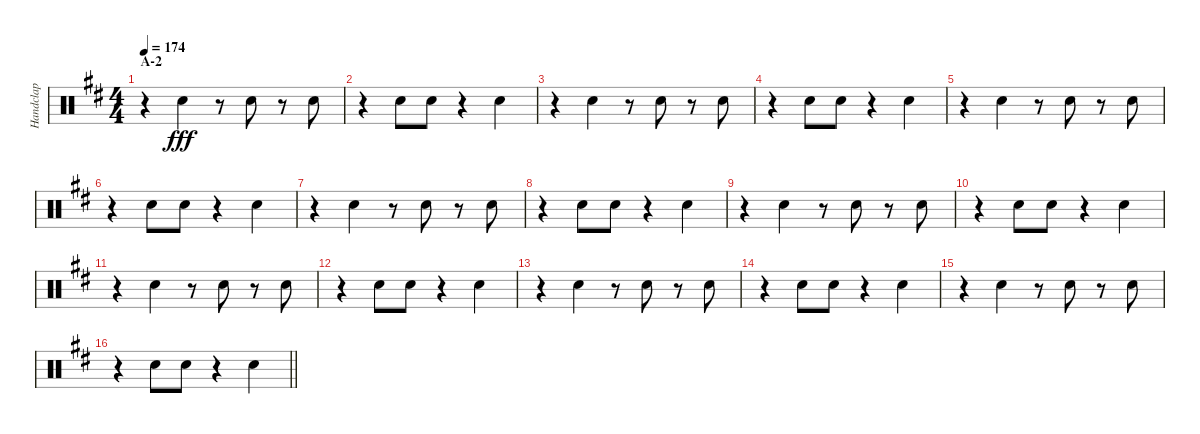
\track ("Handclap" "Handclap") {instrument percussion}
\staff {score}
\articulation defaults
\ts (4 4)
\section ("" "A-2")
\tempo 174
\clef neutral
\ks bminor
r.4{dy fff} "Hand Clap (hit)".4 r.8 "Hand Clap (hit)".8 r.8 "Hand Clap (hit)".8 |
r.4 "Hand Clap (hit)".8 "Hand Clap (hit)".8 r.4 "Hand Clap (hit)".4 |
r.4 "Hand Clap (hit)".4 r.8 "Hand Clap (hit)".8 r.8 "Hand Clap (hit)".8 |
r.4 "Hand Clap (hit)".8 "Hand Clap (hit)".8 r.4 "Hand Clap (hit)".4 |
r.4 "Hand Clap (hit)".4 r.8 "Hand Clap (hit)".8 r.8 "Hand Clap (hit)".8 |
r.4 "Hand Clap (hit)".8 "Hand Clap (hit)".8 r.4 "Hand Clap (hit)".4 |
r.4 "Hand Clap (hit)".4 r.8 "Hand Clap (hit)".8 r.8 "Hand Clap (hit)".8 |
r.4 "Hand Clap (hit)".8 "Hand Clap (hit)".8 r.4 "Hand Clap (hit)".4 |
r.4 "Hand Clap (hit)".4 r.8 "Hand Clap (hit)".8 r.8 "Hand Clap (hit)".8 |
r.4 "Hand Clap (hit)".8 "Hand Clap (hit)".8 r.4 "Hand Clap (hit)".4 |
r.4 "Hand Clap (hit)".4 r.8 "Hand Clap (hit)".8 r.8 "Hand Clap (hit)".8 |
r.4 "Hand Clap (hit)".8 "Hand Clap (hit)".8 r.4 "Hand Clap (hit)".4 |
r.4 "Hand Clap (hit)".4 r.8 "Hand Clap (hit)".8 r.8 "Hand Clap (hit)".8 |
r.4 "Hand Clap (hit)".8 "Hand Clap (hit)".8 r.4 "Hand Clap (hit)".4 |
r.4 "Hand Clap (hit)".4 r.8 "Hand Clap (hit)".8 r.8 "Hand Clap (hit)".8 |
\barLineRight lightlight
r.4 "Hand Clap (hit)".8 "Hand Clap (hit)".8 r.4 "Hand Clap (hit)".4
